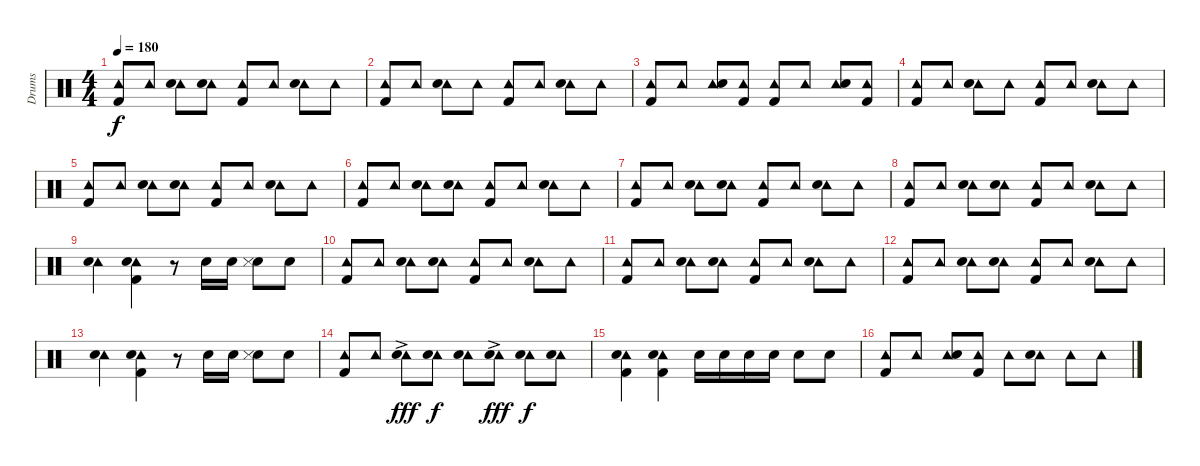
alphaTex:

\track ("Drums" "Drums") {instrument percussion}
\staff {score}
\articulation defaults
\ts (4 4)
\tempo 180
\clef neutral
\ks c
("Tambourine (hit)" "Kick (hit) 2").8{dy f} "Tambourine (hit)".8 ("Tambourine (hit)" "Snare (hit) 2").8 ("Tambourine (hit)" "Snare (hit) 2").8 ("Tambourine (hit)" "Kick (hit) 2").8 "Tambourine (hit)".8 ("Tambourine (hit)" "Snare (hit) 2").8 "Tambourine (hit)".8 |
("Tambourine (hit)" "Kick (hit) 2").8 "Tambourine (hit)".8 ("Tambourine (hit)" "Snare (hit) 2").8 "Tambourine (hit)".8 ("Tambourine (hit)" "Kick (hit) 2").8 "Tambourine (hit)".8 ("Tambourine (hit)" "Snare (hit) 2").8 "Tambourine (hit)".8 |
("Tambourine (hit)" "Kick (hit) 2").8 "Tambourine (hit)".8 ("Tambourine (hit)" "Snare (hit) 2").8 ("Tambourine (hit)" "Kick (hit) 2").8 ("Tambourine (hit)" "Kick (hit) 2").8 "Tambourine (hit)".8 ("Tambourine (hit)" "Snare (hit) 2").8 ("Tambourine (hit)" "Kick (hit) 2").8 |
("Tambourine (hit)" "Kick (hit) 2").8 "Tambourine (hit)".8 ("Tambourine (hit)" "Snare (hit) 2").8 "Tambourine (hit)".8 ("Tambourine (hit)" "Kick (hit) 2").8 "Tambourine (hit)".8 ("Tambourine (hit)" "Snare (hit) 2").8 "Tambourine (hit)".8 |
("Tambourine (hit)" "Kick (hit) 2").8 "Tambourine (hit)".8 ("Tambourine (hit)" "Snare (hit) 2").8 ("Tambourine (hit)" "Snare (hit) 2").8 ("Tambourine (hit)" "Kick (hit) 2").8 "Tambourine (hit)".8 ("Tambourine (hit)" "Snare (hit) 2").8 "Tambourine (hit)".8 |
("Tambourine (hit)" "Kick (hit) 2").8 "Tambourine (hit)".8 ("Tambourine (hit)" "Snare (hit) 2").8 ("Tambourine (hit)" "Snare (hit) 2").8 ("Tambourine (hit)" "Kick (hit) 2").8 "Tambourine (hit)".8 ("Tambourine (hit)" "Snare (hit) 2").8 "Tambourine (hit)".8 |
("Tambourine (hit)" "Kick (hit) 2").8 "Tambourine (hit)".8 ("Tambourine (hit)" "Snare (hit) 2").8 ("Tambourine (hit)" "Snare (hit) 2").8 ("Tambourine (hit)" "Kick (hit) 2").8 "Tambourine (hit)".8 ("Tambourine (hit)" "Snare (hit) 2").8 "Tambourine (hit)".8 |
("Tambourine (hit)" "Kick (hit) 2").8 "Tambourine (hit)".8 ("Tambourine (hit)" "Snare (hit) 2").8 ("Tambourine (hit)" "Snare (hit) 2").8 ("Tambourine (hit)" "Kick (hit) 2").8 "Tambourine (hit)".8 ("Tambourine (hit)" "Snare (hit) 2").8 "Tambourine (hit)".8 |
("Tambourine (hit)" "Snare (hit) 2").4 ("Tambourine (hit)" "Snare (hit) 2" "Kick (hit) 2").4 r.8 "Snare (hit) 2".16 "Snare (hit) 2".16 ("Snare (hit) 2" "Snare (side stick) 3").8 "Snare (hit) 2".8 |
("Tambourine (hit)" "Kick (hit) 2").8 "Tambourine (hit)".8 ("Tambourine (hit)" "Snare (hit) 2").8 ("Tambourine (hit)" "Snare (hit) 2").8 ("Tambourine (hit)" "Kick (hit) 2").8 "Tambourine (hit)".8 ("Tambourine (hit)" "Snare (hit) 2").8 "Tambourine (hit)".8 |
("Tambourine (hit)" "Kick (hit) 2").8 "Tambourine (hit)".8 ("Tambourine (hit)" "Snare (hit) 2").8 ("Tambourine (hit)" "Snare (hit) 2").8 ("Tambourine (hit)" "Kick (hit) 2").8 "Tambourine (hit)".8 ("Tambourine (hit)" "Snare (hit) 2").8 "Tambourine (hit)".8 |
("Tambourine (hit)" "Kick (hit) 2").8 "Tambourine (hit)".8 ("Tambourine (hit)" "Snare (hit) 2").8 ("Tambourine (hit)" "Snare (hit) 2").8 ("Tambourine (hit)" "Kick (hit) 2").8 "Tambourine (hit)".8 ("Tambourine (hit)" "Snare (hit) 2").8 "Tambourine (hit)".8 |
("Tambourine (hit)" "Snare (hit) 2").4 ("Tambourine (hit)" "Snare (hit) 2" "Kick (hit) 2").4 r.8 "Snare (hit) 2".16 "Snare (hit) 2".16 ("Snare (hit) 2" "Snare (side stick) 3").8 "Snare (hit) 2".8 |
("Tambourine (hit)" "Kick (hit) 2").8 "Tambourine (hit)".8 ("Tambourine (hit)"{ac} "Snare (hit) 2"{ac}).8{dy fff} ("Tambourine (hit)" "Snare (hit) 2").8{dy f} ("Tambourine (hit)" "Snare (hit) 2").8 ("Tambourine (hit)"{ac} "Snare (hit) 2"{ac}).8{dy fff} ("Tambourine (hit)" "Snare (hit) 2").8{dy f} ("Tambourine (hit)" "Snare (hit) 2").8 |
("Tambourine (hit)" "Snare (hit) 2" "Kick (hit) 2").4 ("Tambourine (hit)" "Snare (hit) 2" "Kick (hit) 2").4 "Snare (hit) 2".16 "Snare (hit) 2".16 "Snare (hit) 2".16 "Snare (hit) 2".16 "Snare (hit) 2".8 "Snare (hit) 2".8 |
("Tambourine (hit)" "Kick (hit) 2").8 "Tambourine (hit)".8 ("Tambourine (hit)" "Snare (hit) 2").8 ("Tambourine (hit)" "Kick (hit) 2").8 "Tambourine (hit)".8 ("Tambourine (hit)" "Snare (hit) 2").8 "Tambourine (hit)".8 "Tambourine (hit)".8
